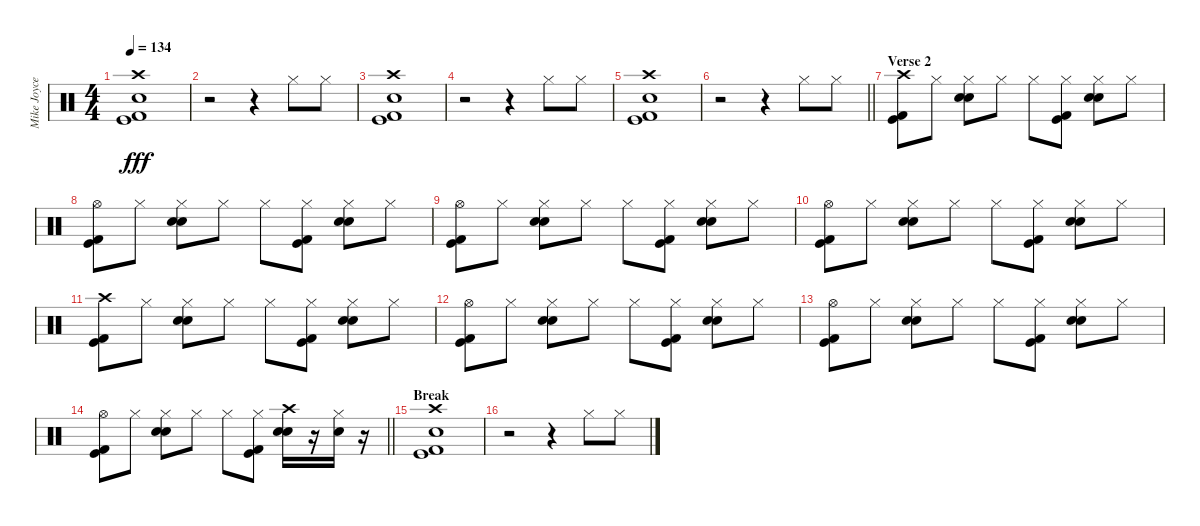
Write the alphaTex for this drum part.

\track ("Mike Joyce" "Mike Joyce") {instrument percussion}
\staff {score}
\articulation defaults
\ts (4 4)
\tempo 134
\clef neutral
\ks c
("Crash high (hit)" "Snare (hit) 2" "Kick (hit)" "Kick (hit) 2").1{dy fff} |
r.2 r.4 "Hi-Hat (closed)".8 "Hi-Hat (closed)".8 |
("Crash high (hit)" "Snare (hit) 2" "Kick (hit)" "Kick (hit) 2").1 |
r.2 r.4 "Hi-Hat (closed)".8 "Hi-Hat (closed)".8 |
("Crash high (hit)" "Snare (hit) 2" "Kick (hit)" "Kick (hit) 2").1 |
\barLineRight lightlight
r.2 r.4 "Hi-Hat (closed)".8 "Hi-Hat (closed)".8 |
\section ("" "Verse 2")
("Crash high (hit)" "Kick (hit) 2" "Kick (hit)").8 "Hi-Hat (closed)".8 ("Hi-Hat (closed)" "Electric Snare (hit)" "Snare (hit) 2").8 "Hi-Hat (closed)".8 "Hi-Hat (closed)".8 ("Hi-Hat (closed)" "Kick (hit) 2" "Kick (hit)").8 ("Hi-Hat (closed)" "Electric Snare (hit)" "Snare (hit) 2").8 "Hi-Hat (closed)".8 |
("Hi-Hat (open)" "Kick (hit) 2" "Kick (hit)").8 "Hi-Hat (closed)".8 ("Hi-Hat (closed)" "Electric Snare (hit)" "Snare (hit) 2").8 "Hi-Hat (closed)".8 "Hi-Hat (closed)".8 ("Hi-Hat (closed)" "Kick (hit) 2" "Kick (hit)").8 ("Hi-Hat (closed)" "Electric Snare (hit)" "Snare (hit) 2").8 "Hi-Hat (closed)".8 |
("Hi-Hat (open)" "Kick (hit) 2" "Kick (hit)").8 "Hi-Hat (closed)".8 ("Hi-Hat (closed)" "Electric Snare (hit)" "Snare (hit) 2").8 "Hi-Hat (closed)".8 "Hi-Hat (closed)".8 ("Hi-Hat (closed)" "Kick (hit) 2" "Kick (hit)").8 ("Hi-Hat (closed)" "Electric Snare (hit)" "Snare (hit) 2").8 "Hi-Hat (closed)".8 |
("Hi-Hat (open)" "Kick (hit) 2" "Kick (hit)").8 "Hi-Hat (closed)".8 ("Hi-Hat (closed)" "Electric Snare (hit)" "Snare (hit) 2").8 "Hi-Hat (closed)".8 "Hi-Hat (closed)".8 ("Hi-Hat (closed)" "Kick (hit) 2" "Kick (hit)").8 ("Hi-Hat (closed)" "Electric Snare (hit)" "Snare (hit) 2").8 "Hi-Hat (closed)".8 |
("Crash high (hit)" "Kick (hit) 2" "Kick (hit)").8 "Hi-Hat (closed)".8 ("Hi-Hat (closed)" "Electric Snare (hit)" "Snare (hit) 2").8 "Hi-Hat (closed)".8 "Hi-Hat (closed)".8 ("Hi-Hat (closed)" "Kick (hit) 2" "Kick (hit)").8 ("Hi-Hat (closed)" "Electric Snare (hit)" "Snare (hit) 2").8 "Hi-Hat (closed)".8 |
("Hi-Hat (open)" "Kick (hit) 2" "Kick (hit)").8 "Hi-Hat (closed)".8 ("Hi-Hat (closed)" "Electric Snare (hit)" "Snare (hit) 2").8 "Hi-Hat (closed)".8 "Hi-Hat (closed)".8 ("Hi-Hat (closed)" "Kick (hit) 2" "Kick (hit)").8 ("Hi-Hat (closed)" "Electric Snare (hit)" "Snare (hit) 2").8 "Hi-Hat (closed)".8 |
("Hi-Hat (open)" "Kick (hit) 2" "Kick (hit)").8 "Hi-Hat (closed)".8 ("Hi-Hat (closed)" "Electric Snare (hit)" "Snare (hit) 2").8 "Hi-Hat (closed)".8 "Hi-Hat (closed)".8 ("Hi-Hat (closed)" "Kick (hit) 2" "Kick (hit)").8 ("Hi-Hat (closed)" "Electric Snare (hit)" "Snare (hit) 2").8 "Hi-Hat (closed)".8 |
\barLineRight lightlight
("Hi-Hat (open)" "Kick (hit) 2" "Kick (hit)").8 "Hi-Hat (closed)".8 ("Hi-Hat (closed)" "Electric Snare (hit)" "Snare (hit) 2").8 "Hi-Hat (closed)".8 "Hi-Hat (closed)".8 ("Hi-Hat (closed)" "Kick (hit) 2" "Kick (hit)").8 ("Crash high (hit)" "Electric Snare (hit)" "Snare (hit) 2").16 r.16 ("Hi-Hat (closed)" "Snare (hit) 2").16 r.16 |
\section ("" "Break")
("Crash high (hit)" "Snare (hit) 2" "Kick (hit)" "Kick (hit) 2").1 |
r.2 r.4 "Hi-Hat (closed)".8 "Hi-Hat (closed)".8
